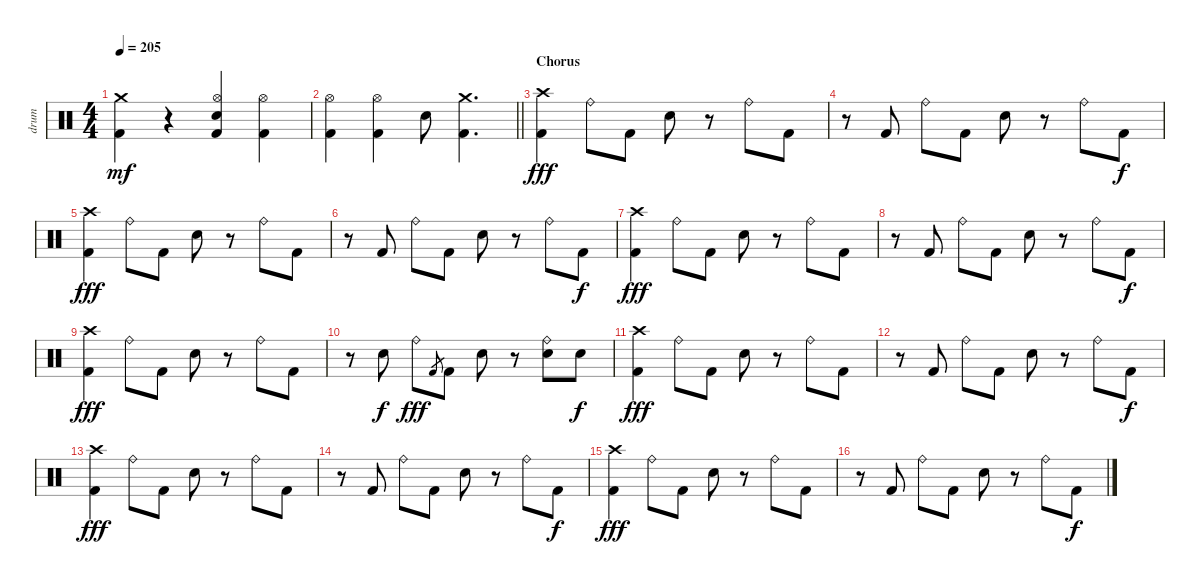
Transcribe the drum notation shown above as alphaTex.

\track ("drum" "drum") {instrument percussion}
\staff {score}
\articulation defaults
\ts (4 4)
\tempo 205
\clef neutral
\ks c
("Crash medium (hit)" "Kick (hit) 2").4{dy mf} r.4 ("Hi-Hat (open)" "Electric Snare (hit)" "Kick (hit) 2").4 ("Hi-Hat (open)" "Kick (hit) 2").4 |
\barLineRight lightlight
("Hi-Hat (open)" "Kick (hit) 2").4 ("Hi-Hat (open)" "Kick (hit) 2").4 "Electric Snare (hit)".8 ("Crash medium (hit)" "Kick (hit) 2").4{d} |
\section ("" "Chorus")
("Crash high (hit)" "Kick (hit) 2").4{dy fff} "Ride (bell)".8 "Kick (hit) 2".8 "Electric Snare (hit)".8 r.8 "Ride (bell)".8 "Kick (hit) 2".8 |
r.8 "Kick (hit) 2".8 "Ride (bell)".8 "Kick (hit) 2".8 "Electric Snare (hit)".8 r.8 "Ride (bell)".8 "Kick (hit) 2".8{dy f} |
("Crash high (hit)" "Kick (hit) 2").4{dy fff} "Ride (bell)".8 "Kick (hit) 2".8 "Electric Snare (hit)".8 r.8 "Ride (bell)".8 "Kick (hit) 2".8 |
r.8 "Kick (hit) 2".8 "Ride (bell)".8 "Kick (hit) 2".8 "Electric Snare (hit)".8 r.8 "Ride (bell)".8 "Kick (hit) 2".8{dy f} |
("Crash high (hit)" "Kick (hit) 2").4{dy fff} "Ride (bell)".8 "Kick (hit) 2".8 "Electric Snare (hit)".8 r.8 "Ride (bell)".8 "Kick (hit) 2".8 |
r.8 "Kick (hit) 2".8 "Ride (bell)".8 "Kick (hit) 2".8 "Electric Snare (hit)".8 r.8 "Ride (bell)".8 "Kick (hit) 2".8{dy f} |
("Crash high (hit)" "Kick (hit) 2").4{dy fff} "Ride (bell)".8 "Kick (hit) 2".8 "Electric Snare (hit)".8 r.8 "Ride (bell)".8 "Kick (hit) 2".8 |
r.8 "Electric Snare (hit)".8{dy f} "Ride (bell)".8{dy fff} "Kick (hit) 2".8{gr} "Kick (hit) 2".8 "Electric Snare (hit)".8 r.8 ("Ride (bell)" "Electric Snare (hit)").8 "Electric Snare (hit)".8{dy f} |
("Crash high (hit)" "Kick (hit) 2").4{dy fff} "Ride (bell)".8 "Kick (hit) 2".8 "Electric Snare (hit)".8 r.8 "Ride (bell)".8 "Kick (hit) 2".8 |
r.8 "Kick (hit) 2".8 "Ride (bell)".8 "Kick (hit) 2".8 "Electric Snare (hit)".8 r.8 "Ride (bell)".8 "Kick (hit) 2".8{dy f} |
("Crash high (hit)" "Kick (hit) 2").4{dy fff} "Ride (bell)".8 "Kick (hit) 2".8 "Electric Snare (hit)".8 r.8 "Ride (bell)".8 "Kick (hit) 2".8 |
r.8 "Kick (hit) 2".8 "Ride (bell)".8 "Kick (hit) 2".8 "Electric Snare (hit)".8 r.8 "Ride (bell)".8 "Kick (hit) 2".8{dy f} |
("Crash high (hit)" "Kick (hit) 2").4{dy fff} "Ride (bell)".8 "Kick (hit) 2".8 "Electric Snare (hit)".8 r.8 "Ride (bell)".8 "Kick (hit) 2".8 |
r.8 "Kick (hit) 2".8 "Ride (bell)".8 "Kick (hit) 2".8 "Electric Snare (hit)".8 r.8 "Ride (bell)".8 "Kick (hit) 2".8{dy f}
